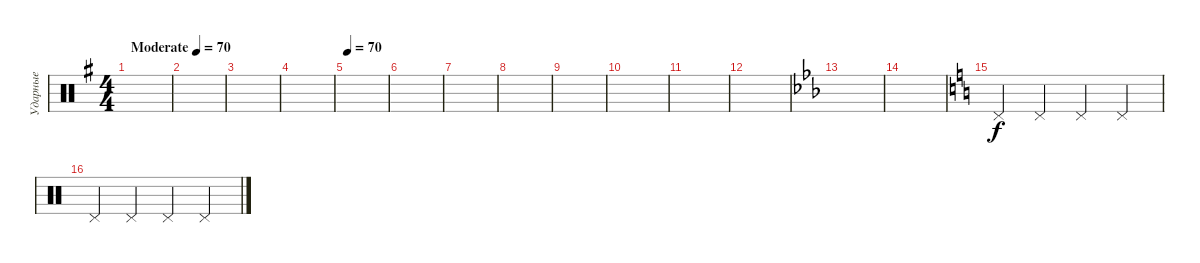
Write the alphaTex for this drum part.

\track ("Ударные" "Ударные") {instrument percussion}
\staff {score}
\articulation defaults
\ts (4 4)
\tempo (70 "Moderate")
\clef neutral
\ks g
|
|
|
|
\tempo 70
|
|
|
|
|
|
|
|
\ks eb
|
|
\ks c "Pedal Hi-Hat (hit)".4 "Pedal Hi-Hat (hit)".4 "Pedal Hi-Hat (hit)".4 "Pedal Hi-Hat (hit)".4
|
"Pedal Hi-Hat (hit)".4 "Pedal Hi-Hat (hit)".4 "Pedal Hi-Hat (hit)".4 "Pedal Hi-Hat (hit)".4
